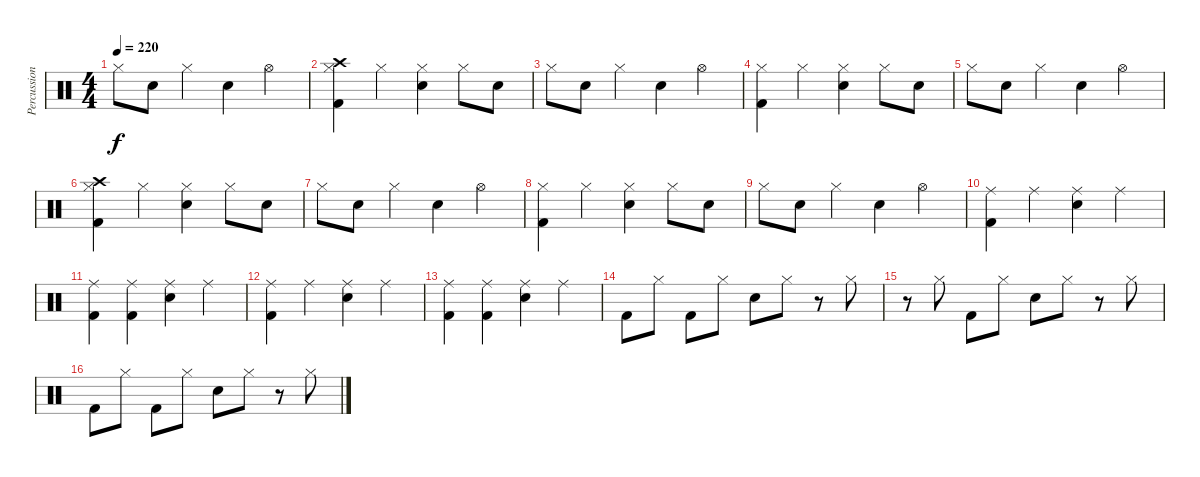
\track ("Percussions" "Percussion") {instrument percussion}
\staff {score}
\articulation defaults
\ts (4 4)
\tempo 220
\clef neutral
\ks c "Hi-Hat (closed)".8{dy f} "Electric Snare (hit)".8 "Hi-Hat (closed)".4 "Electric Snare (hit)".4 "Hi-Hat (open)".4
|
("Crash high (hit)" "Hi-Hat (closed)" "Kick (hit) 2").4 "Hi-Hat (closed)".4 ("Hi-Hat (closed)" "Electric Snare (hit)").4 "Hi-Hat (closed)".8 "Electric Snare (hit)".8 |
"Hi-Hat (closed)".8 "Electric Snare (hit)".8 "Hi-Hat (closed)".4 "Electric Snare (hit)".4 "Hi-Hat (open)".4 |
("Hi-Hat (closed)" "Kick (hit) 2").4 "Hi-Hat (closed)".4 ("Hi-Hat (closed)" "Electric Snare (hit)").4 "Hi-Hat (closed)".8 "Electric Snare (hit)".8 |
"Hi-Hat (closed)".8 "Electric Snare (hit)".8 "Hi-Hat (closed)".4 "Electric Snare (hit)".4 "Hi-Hat (open)".4 |
("Crash high (hit)" "Hi-Hat (closed)" "Kick (hit) 2").4 "Hi-Hat (closed)".4 ("Hi-Hat (closed)" "Electric Snare (hit)").4 "Hi-Hat (closed)".8 "Electric Snare (hit)".8 |
"Hi-Hat (closed)".8 "Electric Snare (hit)".8 "Hi-Hat (closed)".4 "Electric Snare (hit)".4 "Hi-Hat (open)".4 |
("Hi-Hat (closed)" "Kick (hit) 2").4 "Hi-Hat (closed)".4 ("Hi-Hat (closed)" "Electric Snare (hit)").4 "Hi-Hat (closed)".8 "Electric Snare (hit)".8 |
"Hi-Hat (closed)".8 "Electric Snare (hit)".8 "Hi-Hat (closed)".4 "Electric Snare (hit)".4 "Hi-Hat (open)".4 |
("Ride (middle)" "Kick (hit) 2").4 "Ride (middle)".4 ("Ride (middle)" "Electric Snare (hit)").4 "Ride (middle)".4 |
("Ride (middle)" "Kick (hit) 2").4 ("Ride (middle)" "Kick (hit) 2").4 ("Ride (middle)" "Electric Snare (hit)").4 "Ride (middle)".4 |
("Ride (middle)" "Kick (hit) 2").4 "Ride (middle)".4 ("Ride (middle)" "Electric Snare (hit)").4 "Ride (middle)".4 |
("Ride (middle)" "Kick (hit) 2").4 ("Ride (middle)" "Kick (hit) 2").4 ("Ride (middle)" "Electric Snare (hit)").4 "Ride (middle)".4 |
"Kick (hit) 2".8 "Hi-Hat (closed)".8 "Kick (hit) 2".8 "Hi-Hat (closed)".8 "Electric Snare (hit)".8 "Hi-Hat (closed)".8 r.8 "Hi-Hat (closed)".8 |
r.8 "Hi-Hat (closed)".8 "Kick (hit) 2".8 "Hi-Hat (closed)".8 "Electric Snare (hit)".8 "Hi-Hat (closed)".8 r.8 "Hi-Hat (closed)".8 |
"Kick (hit) 2".8 "Hi-Hat (closed)".8 "Kick (hit) 2".8 "Hi-Hat (closed)".8 "Electric Snare (hit)".8 "Hi-Hat (closed)".8 r.8 "Hi-Hat (closed)".8
